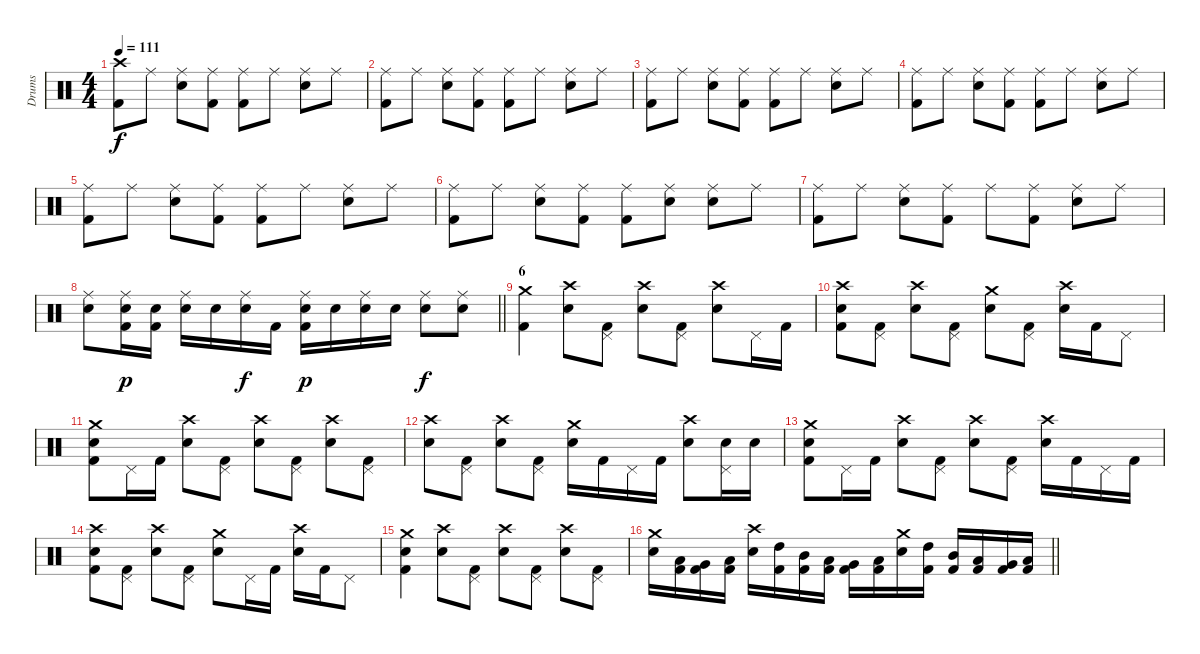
\track ("Drums" "Drums") {instrument percussion}
\staff {score}
\articulation defaults
\ts (4 4)
\tempo 111
\clef neutral
\ks c
("Crash high (hit)" "Kick (hit) 2").8{dy f} "Ride (middle)".8 ("Ride (middle)" "Snare (hit) 2").8 ("Ride (middle)" "Kick (hit) 2").8 ("Ride (middle)" "Kick (hit) 2").8 "Ride (middle)".8 ("Ride (middle)" "Snare (hit) 2").8 "Ride (middle)".8 |
("Ride (middle)" "Kick (hit) 2").8 "Ride (middle)".8 ("Ride (middle)" "Snare (hit) 2").8 ("Ride (middle)" "Kick (hit) 2").8 ("Ride (middle)" "Kick (hit) 2").8 "Ride (middle)".8 ("Ride (middle)" "Snare (hit) 2").8 "Ride (middle)".8 |
("Ride (middle)" "Kick (hit) 2").8 "Ride (middle)".8 ("Ride (middle)" "Snare (hit) 2").8 ("Ride (middle)" "Kick (hit) 2").8 ("Ride (middle)" "Kick (hit) 2").8 "Ride (middle)".8 ("Ride (middle)" "Snare (hit) 2").8 "Ride (middle)".8 |
("Ride (middle)" "Kick (hit) 2").8 "Ride (middle)".8 ("Ride (middle)" "Snare (hit) 2").8 ("Ride (middle)" "Kick (hit) 2").8 ("Ride (middle)" "Kick (hit) 2").8 "Ride (middle)".8 ("Ride (middle)" "Snare (hit) 2").8 "Ride (middle)".8 |
("Ride (middle)" "Kick (hit) 2").8 "Ride (middle)".8 ("Ride (middle)" "Snare (hit) 2").8 ("Ride (middle)" "Kick (hit) 2").8 ("Ride (middle)" "Kick (hit) 2").8 "Ride (middle)".8 ("Ride (middle)" "Snare (hit) 2").8 "Ride (middle)".8 |
("Ride (middle)" "Kick (hit) 2").8 "Ride (middle)".8 ("Ride (middle)" "Snare (hit) 2").8 ("Ride (middle)" "Kick (hit) 2").8 ("Ride (middle)" "Kick (hit) 2").8 ("Ride (middle)" "Snare (hit) 2").8 ("Ride (middle)" "Snare (hit) 2").8 "Ride (middle)".8 |
("Ride (middle)" "Kick (hit) 2").8 "Ride (middle)".8 ("Ride (middle)" "Snare (hit) 2").8 ("Ride (middle)" "Kick (hit) 2").8 "Ride (middle)".8 ("Ride (middle)" "Kick (hit) 2").8 ("Ride (middle)" "Snare (hit) 2").8 "Ride (middle)".8 |
\barLineRight lightlight
("Ride (middle)" "Snare (hit) 2").8 ("Ride (middle)" "Snare (hit) 2" "Kick (hit) 2").16{dy p} ("Snare (hit) 2" "Kick (hit) 2").16 ("Ride (middle)" "Snare (hit) 2").16 "Snare (hit) 2".16 ("Ride (middle)" "Snare (hit) 2").16{dy f} "Kick (hit) 2".16 ("Ride (middle)" "Snare (hit) 2" "Kick (hit) 2").16{dy p} "Snare (hit) 2".16 ("Ride (middle)" "Snare (hit) 2").16 "Snare (hit) 2".16 ("Ride (middle)" "Snare (hit) 2").8{dy f} ("Ride (middle)" "Snare (hit) 2").8 |
\section ("" "6")
("Crash medium (hit)" "Kick (hit) 2").4 ("Crash high (hit)" "Snare (hit) 2").8 ("Pedal Hi-Hat (hit)" "Kick (hit) 2").8 ("Crash high (hit)" "Snare (hit) 2").8 ("Pedal Hi-Hat (hit)" "Kick (hit) 2").8 ("Crash high (hit)" "Snare (hit) 2").8 "Pedal Hi-Hat (hit)".16 "Kick (hit) 2".16 |
("Crash high (hit)" "Snare (hit) 2" "Kick (hit) 2").8 ("Pedal Hi-Hat (hit)" "Kick (hit) 2").8 ("Crash high (hit)" "Snare (hit) 2").8 ("Pedal Hi-Hat (hit)" "Kick (hit) 2").8 ("Crash medium (hit)" "Snare (hit) 2").8 ("Pedal Hi-Hat (hit)" "Kick (hit) 2").8 ("Crash high (hit)" "Snare (hit) 2").16 "Kick (hit) 2".16 "Pedal Hi-Hat (hit)".8 |
("Crash medium (hit)" "Snare (hit) 2" "Kick (hit) 2").8 "Pedal Hi-Hat (hit)".16 "Kick (hit) 2".16 ("Crash high (hit)" "Snare (hit) 2").8 ("Pedal Hi-Hat (hit)" "Kick (hit) 2").8 ("Crash high (hit)" "Snare (hit) 2").8 ("Pedal Hi-Hat (hit)" "Kick (hit) 2").8 ("Crash high (hit)" "Snare (hit) 2").8 ("Pedal Hi-Hat (hit)" "Kick (hit) 2").8 |
("Crash high (hit)" "Snare (hit) 2").8 ("Pedal Hi-Hat (hit)" "Kick (hit) 2").8 ("Crash high (hit)" "Snare (hit) 2").8 ("Pedal Hi-Hat (hit)" "Kick (hit) 2").8 ("Crash medium (hit)" "Snare (hit) 2").16 "Kick (hit) 2".16 "Pedal Hi-Hat (hit)".16 "Kick (hit) 2".16 ("Crash high (hit)" "Snare (hit) 2").8 ("Pedal Hi-Hat (hit)" "Snare (hit) 2").16 "Snare (hit) 2".16 |
("Crash medium (hit)" "Snare (hit) 2" "Kick (hit) 2").8 "Pedal Hi-Hat (hit)".16 "Kick (hit) 2".16 ("Crash high (hit)" "Snare (hit) 2").8 ("Pedal Hi-Hat (hit)" "Kick (hit) 2").8 ("Crash high (hit)" "Snare (hit) 2").8 ("Pedal Hi-Hat (hit)" "Kick (hit) 2").8 ("Crash high (hit)" "Snare (hit) 2").16 "Kick (hit) 2".16 "Pedal Hi-Hat (hit)".16 "Kick (hit) 2".16 |
("Crash high (hit)" "Snare (hit) 2" "Kick (hit) 2").8 ("Pedal Hi-Hat (hit)" "Kick (hit) 2").8 ("Crash high (hit)" "Snare (hit) 2").8 ("Pedal Hi-Hat (hit)" "Kick (hit) 2").8 ("Crash medium (hit)" "Snare (hit) 2").8 "Pedal Hi-Hat (hit)".16 "Kick (hit) 2".16 ("Crash high (hit)" "Snare (hit) 2").16 "Kick (hit) 2".16 "Pedal Hi-Hat (hit)".8 |
("Crash medium (hit)" "Snare (hit) 2" "Kick (hit) 2").4 ("Crash high (hit)" "Snare (hit) 2").8 ("Pedal Hi-Hat (hit)" "Kick (hit) 2").8 ("Crash high (hit)" "Snare (hit) 2").8 ("Pedal Hi-Hat (hit)" "Kick (hit) 2").8 ("Crash high (hit)" "Snare (hit) 2").8 ("Pedal Hi-Hat (hit)" "Kick (hit) 2").8 |
\barLineRight lightlight
("Crash medium (hit)" "Snare (hit) 2").16 ("Low Floor Tom (hit)" "Kick (hit) 2").16 ("Very Low Tom (hit)" "Kick (hit) 2").16 ("Low Floor Tom (hit)" "Kick (hit) 2").16 ("Crash high (hit)" "Snare (hit) 2").16 ("High Tom (hit)" "Kick (hit) 2").16 ("Mid Tom (hit)" "Kick (hit) 2").16 ("Low Tom (hit)" "Kick (hit) 2").16 ("Very Low Tom (hit)" "Kick (hit) 2").16 ("Low Floor Tom (hit)" "Kick (hit) 2").16 ("Crash medium (hit)" "Snare (hit) 2").16 ("High Tom (hit)" "Kick (hit) 2").16 ("Mid Tom (hit)" "Kick (hit) 2").16 ("Low Tom (hit)" "Kick (hit) 2").16 ("Very Low Tom (hit)" "Kick (hit) 2").16 ("Low Floor Tom (hit)" "Kick (hit) 2").16
